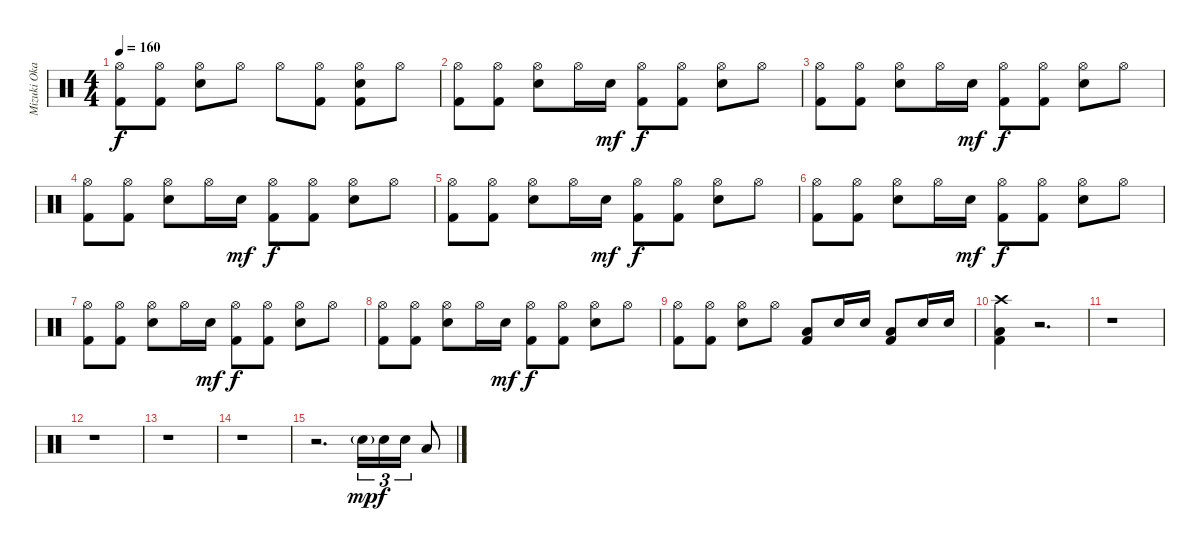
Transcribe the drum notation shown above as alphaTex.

\track ("Mizuki Okajima (Drums)" "Mizuki Oka") {instrument percussion}
\staff {score}
\articulation defaults
\ts (4 4)
\tempo 160
\clef neutral
\ks c
("Hi-Hat (open)" "Kick (hit) 2").8{dy f} ("Hi-Hat (open)" "Kick (hit) 2").8 ("Hi-Hat (open)" "Snare (hit) 2").8 "Hi-Hat (open)".8 "Hi-Hat (open)".8 ("Hi-Hat (open)" "Kick (hit) 2").8 ("Hi-Hat (open)" "Snare (hit) 2" "Kick (hit) 2").8 "Hi-Hat (open)".8 |
("Hi-Hat (open)" "Kick (hit) 2").8 ("Hi-Hat (open)" "Kick (hit) 2").8 ("Hi-Hat (open)" "Snare (hit) 2").8 "Hi-Hat (open)".16 "Snare (hit) 2".16{dy mf} ("Hi-Hat (open)" "Kick (hit) 2").8{dy f} ("Hi-Hat (open)" "Kick (hit) 2").8 ("Hi-Hat (open)" "Snare (hit) 2").8 "Hi-Hat (open)".8 |
("Hi-Hat (open)" "Kick (hit) 2").8 ("Hi-Hat (open)" "Kick (hit) 2").8 ("Hi-Hat (open)" "Snare (hit) 2").8 "Hi-Hat (open)".16 "Snare (hit) 2".16{dy mf} ("Hi-Hat (open)" "Kick (hit) 2").8{dy f} ("Hi-Hat (open)" "Kick (hit) 2").8 ("Hi-Hat (open)" "Snare (hit) 2").8 "Hi-Hat (open)".8 |
("Hi-Hat (open)" "Kick (hit) 2").8 ("Hi-Hat (open)" "Kick (hit) 2").8 ("Hi-Hat (open)" "Snare (hit) 2").8 "Hi-Hat (open)".16 "Snare (hit) 2".16{dy mf} ("Hi-Hat (open)" "Kick (hit) 2").8{dy f} ("Hi-Hat (open)" "Kick (hit) 2").8 ("Hi-Hat (open)" "Snare (hit) 2").8 "Hi-Hat (open)".8 |
("Hi-Hat (open)" "Kick (hit) 2").8 ("Hi-Hat (open)" "Kick (hit) 2").8 ("Hi-Hat (open)" "Snare (hit) 2").8 "Hi-Hat (open)".16 "Snare (hit) 2".16{dy mf} ("Hi-Hat (open)" "Kick (hit) 2").8{dy f} ("Hi-Hat (open)" "Kick (hit) 2").8 ("Hi-Hat (open)" "Snare (hit) 2").8 "Hi-Hat (open)".8 |
("Hi-Hat (open)" "Kick (hit) 2").8 ("Hi-Hat (open)" "Kick (hit) 2").8 ("Hi-Hat (open)" "Snare (hit) 2").8 "Hi-Hat (open)".16 "Snare (hit) 2".16{dy mf} ("Hi-Hat (open)" "Kick (hit) 2").8{dy f} ("Hi-Hat (open)" "Kick (hit) 2").8 ("Hi-Hat (open)" "Snare (hit) 2").8 "Hi-Hat (open)".8 |
("Hi-Hat (open)" "Kick (hit) 2").8 ("Hi-Hat (open)" "Kick (hit) 2").8 ("Hi-Hat (open)" "Snare (hit) 2").8 "Hi-Hat (open)".16 "Snare (hit) 2".16{dy mf} ("Hi-Hat (open)" "Kick (hit) 2").8{dy f} ("Hi-Hat (open)" "Kick (hit) 2").8 ("Hi-Hat (open)" "Snare (hit) 2").8 "Hi-Hat (open)".8 |
("Hi-Hat (open)" "Kick (hit) 2").8 ("Hi-Hat (open)" "Kick (hit) 2").8 ("Hi-Hat (open)" "Snare (hit) 2").8 "Hi-Hat (open)".16 "Snare (hit) 2".16{dy mf} ("Hi-Hat (open)" "Kick (hit) 2").8{dy f} ("Hi-Hat (open)" "Kick (hit) 2").8 ("Hi-Hat (open)" "Snare (hit) 2").8 "Hi-Hat (open)".8 |
("Hi-Hat (open)" "Kick (hit) 2").8 ("Hi-Hat (open)" "Kick (hit) 2").8 ("Hi-Hat (open)" "Snare (hit) 2").8 "Hi-Hat (open)".8 ("Low Tom (hit)" "Kick (hit) 2").8 "Snare (hit) 2".16 "Snare (hit) 2".16 ("Low Tom (hit)" "Kick (hit) 2").8 "Snare (hit) 2".16 "Snare (hit) 2".16 |
("Crash high (hit)" "Low Tom (hit)" "Kick (hit) 2").4 r.2{d} |
r.1 |
r.1 |
r.1 |
r.1 |
r.2{d} "Snare (hit) 2"{g}.16{tu (3 2) dy mp} "Snare (hit) 2".16{tu (3 2) dy f} "Snare (hit) 2".16{tu (3 2)} "Low Tom (hit)".8
